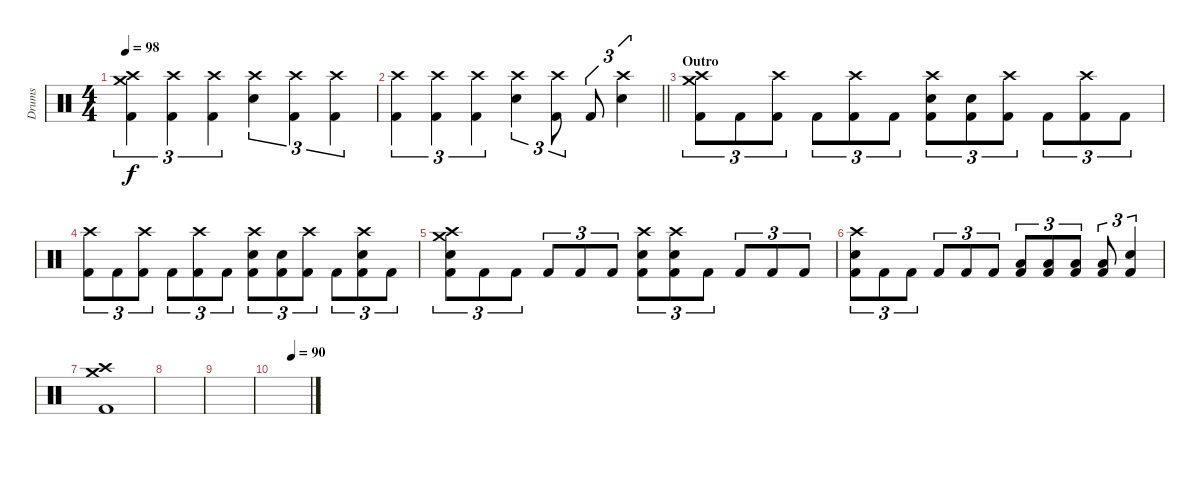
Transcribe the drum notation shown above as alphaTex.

\track ("Drums" "Drums") {instrument percussion}
\staff {score}
\articulation defaults
\ts (4 4)
\tempo 98
\clef neutral
\ks c
("Crash medium (hit)" "Crash high (hit)" "Kick (hit) 2").4{tu (3 2) dy f} ("Crash high (hit)" "Kick (hit) 2").4{tu (3 2)} ("Crash high (hit)" "Kick (hit) 2").4{tu (3 2)} ("Crash high (hit)" "Electric Snare (hit)").4{tu (3 2)} ("Crash high (hit)" "Kick (hit) 2").4{tu (3 2)} ("Crash high (hit)" "Kick (hit) 2").4{tu (3 2)} |
\barLineRight lightlight
("Crash high (hit)" "Kick (hit) 2").4{tu (3 2)} ("Crash high (hit)" "Kick (hit) 2").4{tu (3 2)} ("Crash high (hit)" "Kick (hit) 2").4{tu (3 2)} ("Crash high (hit)" "Electric Snare (hit)").4{tu (3 2)} ("Crash high (hit)" "Kick (hit) 2").8{tu (3 2)} "Kick (hit) 2".8{tu (3 2)} ("Crash high (hit)" "Electric Snare (hit)").4{tu (3 2)} |
\section ("" "Outro")
("Crash medium (hit)" "Crash high (hit)" "Kick (hit) 2").8{tu (3 2)} "Kick (hit) 2".8{tu (3 2)} ("Crash high (hit)" "Kick (hit) 2").8{tu (3 2)} "Kick (hit) 2".8{tu (3 2)} ("Crash high (hit)" "Kick (hit) 2").8{tu (3 2)} "Kick (hit) 2".8{tu (3 2)} ("Crash high (hit)" "Electric Snare (hit)" "Kick (hit) 2").8{tu (3 2)} ("Electric Snare (hit)" "Kick (hit) 2").8{tu (3 2)} ("Crash high (hit)" "Kick (hit) 2").8{tu (3 2)} "Kick (hit) 2".8{tu (3 2)} ("Crash high (hit)" "Kick (hit) 2").8{tu (3 2)} "Kick (hit) 2".8{tu (3 2)} |
("Crash high (hit)" "Kick (hit) 2").8{tu (3 2)} "Kick (hit) 2".8{tu (3 2)} ("Crash high (hit)" "Kick (hit) 2").8{tu (3 2)} "Kick (hit) 2".8{tu (3 2)} ("Crash high (hit)" "Kick (hit) 2").8{tu (3 2)} "Kick (hit) 2".8{tu (3 2)} ("Crash high (hit)" "Electric Snare (hit)" "Kick (hit) 2").8{tu (3 2)} ("Electric Snare (hit)" "Kick (hit) 2").8{tu (3 2)} ("Crash high (hit)" "Kick (hit) 2").8{tu (3 2)} "Kick (hit) 2".8{tu (3 2)} ("Crash high (hit)" "Electric Snare (hit)" "Kick (hit) 2").8{tu (3 2)} "Kick (hit) 2".8{tu (3 2)} |
("Crash medium (hit)" "Crash high (hit)" "Electric Snare (hit)" "Kick (hit) 2").8{tu (3 2)} "Kick (hit) 2".8{tu (3 2)} "Kick (hit) 2".8{tu (3 2)} "Kick (hit) 2".8{tu (3 2)} "Kick (hit) 2".8{tu (3 2)} "Kick (hit) 2".8{tu (3 2)} ("Crash high (hit)" "Electric Snare (hit)" "Kick (hit) 2").8{tu (3 2)} ("Crash high (hit)" "Electric Snare (hit)" "Kick (hit) 2").8{tu (3 2)} "Kick (hit) 2".8{tu (3 2)} "Kick (hit) 2".8{tu (3 2)} "Kick (hit) 2".8{tu (3 2)} "Kick (hit) 2".8{tu (3 2)} |
("Crash high (hit)" "Electric Snare (hit)" "Kick (hit) 2").8{tu (3 2)} "Kick (hit) 2".8{tu (3 2)} "Kick (hit) 2".8{tu (3 2)} "Kick (hit) 2".8{tu (3 2)} "Kick (hit) 2".8{tu (3 2)} "Kick (hit) 2".8{tu (3 2)} ("Low Floor Tom (hit)" "Kick (hit) 2").8{tu (3 2)} ("Low Floor Tom (hit)" "Kick (hit) 2").8{tu (3 2)} ("Low Floor Tom (hit)" "Kick (hit) 2").8{tu (3 2)} ("Low Floor Tom (hit)" "Kick (hit) 2").8{tu (3 2)} ("Electric Snare (hit)" "Kick (hit) 2").4{tu (3 2)} |
("Crash medium (hit)" "Crash high (hit)" "Kick (hit) 2").1 |
|
|
\tempo (90 0.5)
